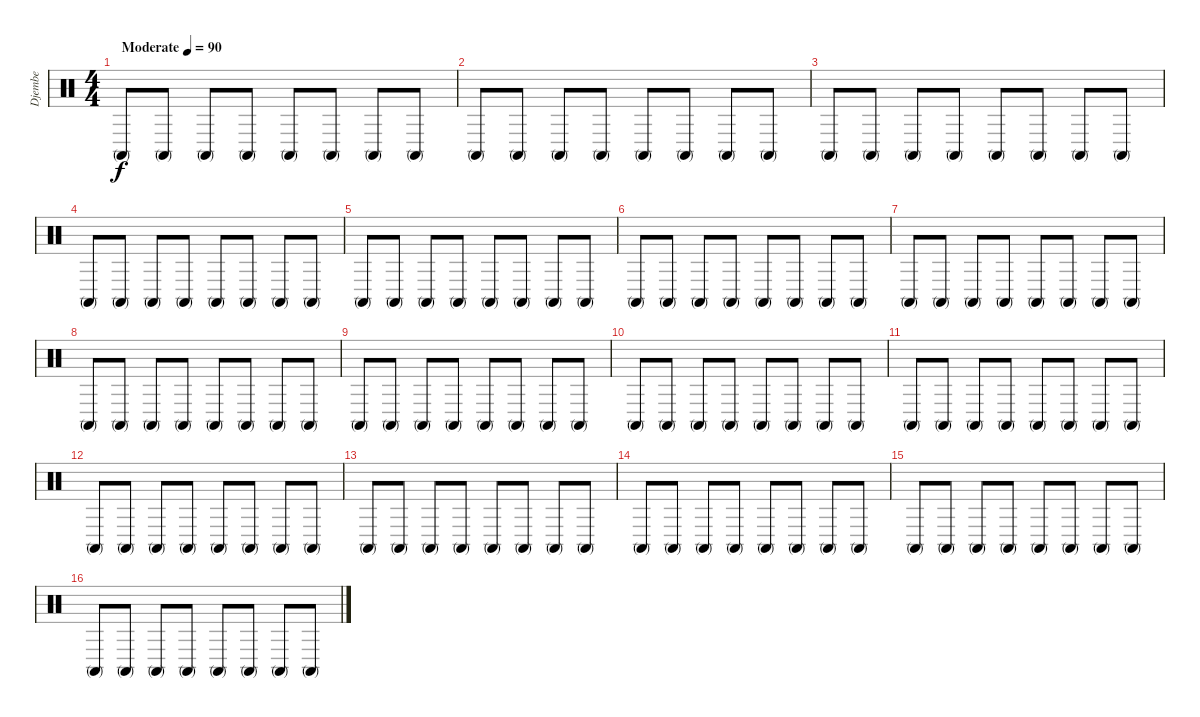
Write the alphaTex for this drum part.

\track ("Djembe" "Djembe") {instrument percussion}
\staff {score}
\articulation defaults
\ts (4 4)
\tempo (90 "Moderate")
\clef neutral
\ks c "Conga high (mute)".8{dy f volume 11} "Conga high (mute)".8 "Conga high (mute)".8 "Conga high (mute)".8 "Conga high (mute)".8 "Conga high (mute)".8 "Conga high (mute)".8 "Conga high (mute)".8
|
"Conga high (mute)".8 "Conga high (mute)".8 "Conga high (mute)".8 "Conga high (mute)".8 "Conga high (mute)".8 "Conga high (mute)".8 "Conga high (mute)".8 "Conga high (mute)".8 |
"Conga high (mute)".8 "Conga high (mute)".8 "Conga high (mute)".8 "Conga high (mute)".8 "Conga high (mute)".8 "Conga high (mute)".8 "Conga high (mute)".8 "Conga high (mute)".8 |
"Conga high (mute)".8 "Conga high (mute)".8 "Conga high (mute)".8 "Conga high (mute)".8 "Conga high (mute)".8 "Conga high (mute)".8 "Conga high (mute)".8 "Conga high (mute)".8 |
"Conga high (mute)".8 "Conga high (mute)".8 "Conga high (mute)".8 "Conga high (mute)".8 "Conga high (mute)".8 "Conga high (mute)".8 "Conga high (mute)".8 "Conga high (mute)".8 |
"Conga high (mute)".8 "Conga high (mute)".8 "Conga high (mute)".8 "Conga high (mute)".8 "Conga high (mute)".8 "Conga high (mute)".8 "Conga high (mute)".8 "Conga high (mute)".8 |
"Conga high (mute)".8 "Conga high (mute)".8 "Conga high (mute)".8 "Conga high (mute)".8 "Conga high (mute)".8 "Conga high (mute)".8 "Conga high (mute)".8 "Conga high (mute)".8 |
"Conga high (mute)".8 "Conga high (mute)".8 "Conga high (mute)".8 "Conga high (mute)".8 "Conga high (mute)".8 "Conga high (mute)".8 "Conga high (mute)".8 "Conga high (mute)".8 |
"Conga high (mute)".8 "Conga high (mute)".8 "Conga high (mute)".8 "Conga high (mute)".8 "Conga high (mute)".8 "Conga high (mute)".8 "Conga high (mute)".8 "Conga high (mute)".8 |
"Conga high (mute)".8 "Conga high (mute)".8 "Conga high (mute)".8 "Conga high (mute)".8 "Conga high (mute)".8 "Conga high (mute)".8 "Conga high (mute)".8 "Conga high (mute)".8 |
"Conga high (mute)".8 "Conga high (mute)".8 "Conga high (mute)".8 "Conga high (mute)".8 "Conga high (mute)".8 "Conga high (mute)".8 "Conga high (mute)".8 "Conga high (mute)".8 |
"Conga high (mute)".8 "Conga high (mute)".8 "Conga high (mute)".8 "Conga high (mute)".8 "Conga high (mute)".8 "Conga high (mute)".8 "Conga high (mute)".8 "Conga high (mute)".8 |
"Conga high (mute)".8 "Conga high (mute)".8 "Conga high (mute)".8 "Conga high (mute)".8 "Conga high (mute)".8 "Conga high (mute)".8 "Conga high (mute)".8 "Conga high (mute)".8 |
"Conga high (mute)".8 "Conga high (mute)".8 "Conga high (mute)".8 "Conga high (mute)".8 "Conga high (mute)".8 "Conga high (mute)".8 "Conga high (mute)".8 "Conga high (mute)".8 |
"Conga high (mute)".8 "Conga high (mute)".8 "Conga high (mute)".8 "Conga high (mute)".8 "Conga high (mute)".8 "Conga high (mute)".8 "Conga high (mute)".8 "Conga high (mute)".8 |
"Conga high (mute)".8 "Conga high (mute)".8 "Conga high (mute)".8 "Conga high (mute)".8 "Conga high (mute)".8 "Conga high (mute)".8 "Conga high (mute)".8 "Conga high (mute)".8
